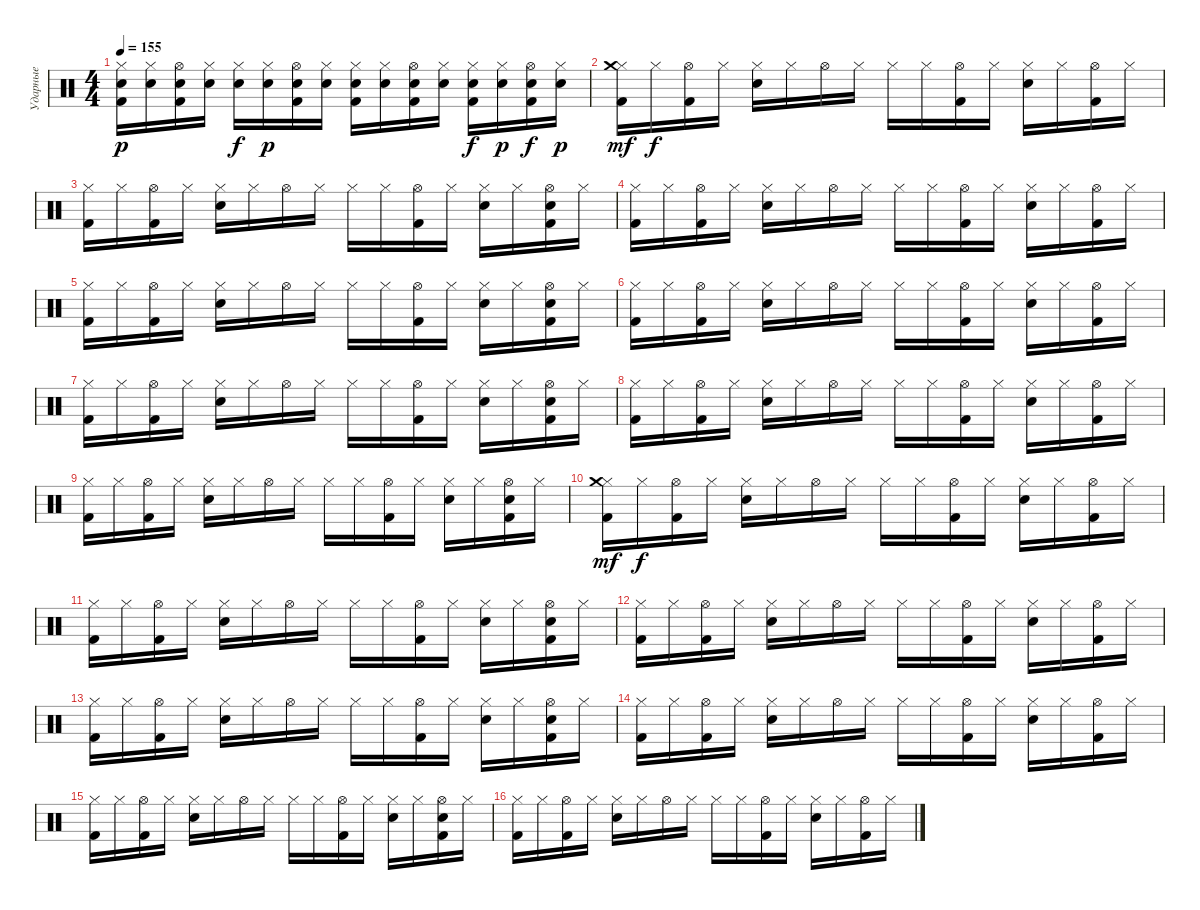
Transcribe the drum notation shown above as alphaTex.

\track ("Ударные" "Ударные") {instrument percussion}
\staff {score}
\articulation defaults
\ts (4 4)
\tempo 155
\clef neutral
\ks c
("Hi-Hat (closed)" "Kick (hit) 2" "Electric Snare (hit)").16{dy p} ("Hi-Hat (closed)" "Electric Snare (hit)").16 ("Hi-Hat (open)" "Kick (hit) 2" "Electric Snare (hit)").16 ("Hi-Hat (closed)" "Electric Snare (hit)").16 ("Hi-Hat (closed)" "Electric Snare (hit)").16{dy f} ("Hi-Hat (closed)" "Electric Snare (hit)").16{dy p} ("Hi-Hat (open)" "Kick (hit) 2" "Electric Snare (hit)").16 ("Hi-Hat (closed)" "Electric Snare (hit)").16 ("Hi-Hat (closed)" "Kick (hit) 2" "Electric Snare (hit)").16 ("Hi-Hat (closed)" "Electric Snare (hit)").16 ("Hi-Hat (open)" "Kick (hit) 2" "Electric Snare (hit)").16 ("Hi-Hat (closed)" "Electric Snare (hit)").16 ("Hi-Hat (closed)" "Electric Snare (hit)" "Kick (hit) 2").16{dy f} ("Hi-Hat (closed)" "Electric Snare (hit)").16{dy p} ("Hi-Hat (open)" "Kick (hit) 2" "Electric Snare (hit)").16{dy f} ("Hi-Hat (closed)" "Electric Snare (hit)").16{dy p} |
("Hi-Hat (closed)" "Kick (hit) 2" "Crash medium (hit)").16{dy mf} "Hi-Hat (closed)".16{dy f} ("Hi-Hat (open)" "Kick (hit) 2").16 "Hi-Hat (closed)".16 ("Hi-Hat (closed)" "Electric Snare (hit)").16 "Hi-Hat (closed)".16 "Hi-Hat (open)".16 "Hi-Hat (closed)".16 "Hi-Hat (closed)".16 "Hi-Hat (closed)".16 ("Hi-Hat (open)" "Kick (hit) 2").16 "Hi-Hat (closed)".16 ("Hi-Hat (closed)" "Electric Snare (hit)").16 "Hi-Hat (closed)".16 ("Hi-Hat (open)" "Kick (hit) 2").16 "Hi-Hat (closed)".16 |
("Hi-Hat (closed)" "Kick (hit) 2").16 "Hi-Hat (closed)".16 ("Hi-Hat (open)" "Kick (hit) 2").16 "Hi-Hat (closed)".16 ("Hi-Hat (closed)" "Electric Snare (hit)").16 "Hi-Hat (closed)".16 "Hi-Hat (open)".16 "Hi-Hat (closed)".16 "Hi-Hat (closed)".16 "Hi-Hat (closed)".16 ("Hi-Hat (open)" "Kick (hit) 2").16 "Hi-Hat (closed)".16 ("Hi-Hat (closed)" "Electric Snare (hit)").16 "Hi-Hat (closed)".16 ("Hi-Hat (open)" "Kick (hit) 2" "Electric Snare (hit)").16 "Hi-Hat (closed)".16 |
("Hi-Hat (closed)" "Kick (hit) 2").16 "Hi-Hat (closed)".16 ("Hi-Hat (open)" "Kick (hit) 2").16 "Hi-Hat (closed)".16 ("Hi-Hat (closed)" "Electric Snare (hit)").16 "Hi-Hat (closed)".16 "Hi-Hat (open)".16 "Hi-Hat (closed)".16 "Hi-Hat (closed)".16 "Hi-Hat (closed)".16 ("Hi-Hat (open)" "Kick (hit) 2").16 "Hi-Hat (closed)".16 ("Hi-Hat (closed)" "Electric Snare (hit)").16 "Hi-Hat (closed)".16 ("Hi-Hat (open)" "Kick (hit) 2").16 "Hi-Hat (closed)".16 |
("Hi-Hat (closed)" "Kick (hit) 2").16 "Hi-Hat (closed)".16 ("Hi-Hat (open)" "Kick (hit) 2").16 "Hi-Hat (closed)".16 ("Hi-Hat (closed)" "Electric Snare (hit)").16 "Hi-Hat (closed)".16 "Hi-Hat (open)".16 "Hi-Hat (closed)".16 "Hi-Hat (closed)".16 "Hi-Hat (closed)".16 ("Hi-Hat (open)" "Kick (hit) 2").16 "Hi-Hat (closed)".16 ("Hi-Hat (closed)" "Electric Snare (hit)").16 "Hi-Hat (closed)".16 ("Hi-Hat (open)" "Kick (hit) 2" "Electric Snare (hit)").16 "Hi-Hat (closed)".16 |
("Hi-Hat (closed)" "Kick (hit) 2").16 "Hi-Hat (closed)".16 ("Hi-Hat (open)" "Kick (hit) 2").16 "Hi-Hat (closed)".16 ("Hi-Hat (closed)" "Electric Snare (hit)").16 "Hi-Hat (closed)".16 "Hi-Hat (open)".16 "Hi-Hat (closed)".16 "Hi-Hat (closed)".16 "Hi-Hat (closed)".16 ("Hi-Hat (open)" "Kick (hit) 2").16 "Hi-Hat (closed)".16 ("Hi-Hat (closed)" "Electric Snare (hit)").16 "Hi-Hat (closed)".16 ("Hi-Hat (open)" "Kick (hit) 2").16 "Hi-Hat (closed)".16 |
("Hi-Hat (closed)" "Kick (hit) 2").16 "Hi-Hat (closed)".16 ("Hi-Hat (open)" "Kick (hit) 2").16 "Hi-Hat (closed)".16 ("Hi-Hat (closed)" "Electric Snare (hit)").16 "Hi-Hat (closed)".16 "Hi-Hat (open)".16 "Hi-Hat (closed)".16 "Hi-Hat (closed)".16 "Hi-Hat (closed)".16 ("Hi-Hat (open)" "Kick (hit) 2").16 "Hi-Hat (closed)".16 ("Hi-Hat (closed)" "Electric Snare (hit)").16 "Hi-Hat (closed)".16 ("Hi-Hat (open)" "Kick (hit) 2" "Electric Snare (hit)").16 "Hi-Hat (closed)".16 |
("Hi-Hat (closed)" "Kick (hit) 2").16 "Hi-Hat (closed)".16 ("Hi-Hat (open)" "Kick (hit) 2").16 "Hi-Hat (closed)".16 ("Hi-Hat (closed)" "Electric Snare (hit)").16 "Hi-Hat (closed)".16 "Hi-Hat (open)".16 "Hi-Hat (closed)".16 "Hi-Hat (closed)".16 "Hi-Hat (closed)".16 ("Hi-Hat (open)" "Kick (hit) 2").16 "Hi-Hat (closed)".16 ("Hi-Hat (closed)" "Electric Snare (hit)").16 "Hi-Hat (closed)".16 ("Hi-Hat (open)" "Kick (hit) 2").16 "Hi-Hat (closed)".16 |
("Hi-Hat (closed)" "Kick (hit) 2").16 "Hi-Hat (closed)".16 ("Hi-Hat (open)" "Kick (hit) 2").16 "Hi-Hat (closed)".16 ("Hi-Hat (closed)" "Electric Snare (hit)").16 "Hi-Hat (closed)".16 "Hi-Hat (open)".16 "Hi-Hat (closed)".16 "Hi-Hat (closed)".16 "Hi-Hat (closed)".16 ("Hi-Hat (open)" "Kick (hit) 2").16 "Hi-Hat (closed)".16 ("Hi-Hat (closed)" "Electric Snare (hit)").16 "Hi-Hat (closed)".16 ("Hi-Hat (open)" "Kick (hit) 2" "Electric Snare (hit)").16 "Hi-Hat (closed)".16 |
("Hi-Hat (closed)" "Kick (hit) 2" "Crash medium (hit)").16{dy mf} "Hi-Hat (closed)".16{dy f} ("Hi-Hat (open)" "Kick (hit) 2").16 "Hi-Hat (closed)".16 ("Hi-Hat (closed)" "Electric Snare (hit)").16 "Hi-Hat (closed)".16 "Hi-Hat (open)".16 "Hi-Hat (closed)".16 "Hi-Hat (closed)".16 "Hi-Hat (closed)".16 ("Hi-Hat (open)" "Kick (hit) 2").16 "Hi-Hat (closed)".16 ("Hi-Hat (closed)" "Electric Snare (hit)").16 "Hi-Hat (closed)".16 ("Hi-Hat (open)" "Kick (hit) 2").16 "Hi-Hat (closed)".16 |
("Hi-Hat (closed)" "Kick (hit) 2").16 "Hi-Hat (closed)".16 ("Hi-Hat (open)" "Kick (hit) 2").16 "Hi-Hat (closed)".16 ("Hi-Hat (closed)" "Electric Snare (hit)").16 "Hi-Hat (closed)".16 "Hi-Hat (open)".16 "Hi-Hat (closed)".16 "Hi-Hat (closed)".16 "Hi-Hat (closed)".16 ("Hi-Hat (open)" "Kick (hit) 2").16 "Hi-Hat (closed)".16 ("Hi-Hat (closed)" "Electric Snare (hit)").16 "Hi-Hat (closed)".16 ("Hi-Hat (open)" "Kick (hit) 2" "Electric Snare (hit)").16 "Hi-Hat (closed)".16 |
("Hi-Hat (closed)" "Kick (hit) 2").16 "Hi-Hat (closed)".16 ("Hi-Hat (open)" "Kick (hit) 2").16 "Hi-Hat (closed)".16 ("Hi-Hat (closed)" "Electric Snare (hit)").16 "Hi-Hat (closed)".16 "Hi-Hat (open)".16 "Hi-Hat (closed)".16 "Hi-Hat (closed)".16 "Hi-Hat (closed)".16 ("Hi-Hat (open)" "Kick (hit) 2").16 "Hi-Hat (closed)".16 ("Hi-Hat (closed)" "Electric Snare (hit)").16 "Hi-Hat (closed)".16 ("Hi-Hat (open)" "Kick (hit) 2").16 "Hi-Hat (closed)".16 |
("Hi-Hat (closed)" "Kick (hit) 2").16 "Hi-Hat (closed)".16 ("Hi-Hat (open)" "Kick (hit) 2").16 "Hi-Hat (closed)".16 ("Hi-Hat (closed)" "Electric Snare (hit)").16 "Hi-Hat (closed)".16 "Hi-Hat (open)".16 "Hi-Hat (closed)".16 "Hi-Hat (closed)".16 "Hi-Hat (closed)".16 ("Hi-Hat (open)" "Kick (hit) 2").16 "Hi-Hat (closed)".16 ("Hi-Hat (closed)" "Electric Snare (hit)").16 "Hi-Hat (closed)".16 ("Hi-Hat (open)" "Kick (hit) 2" "Electric Snare (hit)").16 "Hi-Hat (closed)".16 |
("Hi-Hat (closed)" "Kick (hit) 2").16 "Hi-Hat (closed)".16 ("Hi-Hat (open)" "Kick (hit) 2").16 "Hi-Hat (closed)".16 ("Hi-Hat (closed)" "Electric Snare (hit)").16 "Hi-Hat (closed)".16 "Hi-Hat (open)".16 "Hi-Hat (closed)".16 "Hi-Hat (closed)".16 "Hi-Hat (closed)".16 ("Hi-Hat (open)" "Kick (hit) 2").16 "Hi-Hat (closed)".16 ("Hi-Hat (closed)" "Electric Snare (hit)").16 "Hi-Hat (closed)".16 ("Hi-Hat (open)" "Kick (hit) 2").16 "Hi-Hat (closed)".16 |
("Hi-Hat (closed)" "Kick (hit) 2").16 "Hi-Hat (closed)".16 ("Hi-Hat (open)" "Kick (hit) 2").16 "Hi-Hat (closed)".16 ("Hi-Hat (closed)" "Electric Snare (hit)").16 "Hi-Hat (closed)".16 "Hi-Hat (open)".16 "Hi-Hat (closed)".16 "Hi-Hat (closed)".16 "Hi-Hat (closed)".16 ("Hi-Hat (open)" "Kick (hit) 2").16 "Hi-Hat (closed)".16 ("Hi-Hat (closed)" "Electric Snare (hit)").16 "Hi-Hat (closed)".16 ("Hi-Hat (open)" "Kick (hit) 2" "Electric Snare (hit)").16 "Hi-Hat (closed)".16 |
("Hi-Hat (closed)" "Kick (hit) 2").16 "Hi-Hat (closed)".16 ("Hi-Hat (open)" "Kick (hit) 2").16 "Hi-Hat (closed)".16 ("Hi-Hat (closed)" "Electric Snare (hit)").16 "Hi-Hat (closed)".16 "Hi-Hat (open)".16 "Hi-Hat (closed)".16 "Hi-Hat (closed)".16 "Hi-Hat (closed)".16 ("Hi-Hat (open)" "Kick (hit) 2").16 "Hi-Hat (closed)".16 ("Hi-Hat (closed)" "Electric Snare (hit)").16 "Hi-Hat (closed)".16 ("Hi-Hat (open)" "Kick (hit) 2").16 "Hi-Hat (closed)".16
